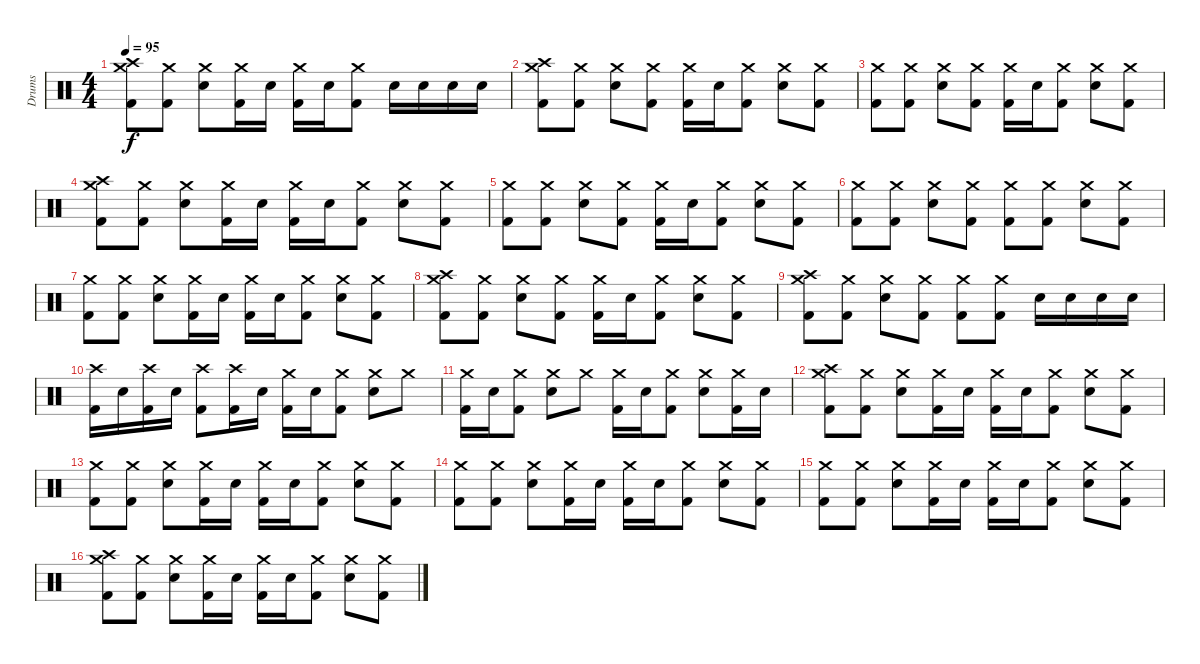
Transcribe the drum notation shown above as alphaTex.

\track ("Drums" "Drums") {instrument percussion}
\staff {score}
\articulation defaults
\ts (4 4)
\tempo 95
\clef neutral
\ks c
("Crash high (hit)" "Crash medium (hit)" "Kick (hit) 2").8{dy f} ("Crash medium (hit)" "Kick (hit) 2").8 ("Crash medium (hit)" "Snare (hit) 2").8 ("Crash medium (hit)" "Kick (hit) 2").16 "Snare (hit) 2".16 ("Crash medium (hit)" "Kick (hit) 2").16 "Snare (hit) 2".16 ("Crash medium (hit)" "Kick (hit) 2").8 "Snare (hit) 2".16 "Snare (hit) 2".16 "Snare (hit) 2".16 "Snare (hit) 2".16 |
("Crash high (hit)" "Crash medium (hit)" "Kick (hit) 2").8 ("Crash medium (hit)" "Kick (hit) 2").8 ("Crash medium (hit)" "Snare (hit) 2").8 ("Crash medium (hit)" "Kick (hit) 2").8 ("Crash medium (hit)" "Kick (hit) 2").16 "Snare (hit) 2".16 ("Crash medium (hit)" "Kick (hit) 2").8 ("Crash medium (hit)" "Snare (hit) 2").8 ("Crash medium (hit)" "Kick (hit) 2").8 |
("Crash medium (hit)" "Kick (hit) 2").8 ("Crash medium (hit)" "Kick (hit) 2").8 ("Crash medium (hit)" "Snare (hit) 2").8 ("Crash medium (hit)" "Kick (hit) 2").8 ("Crash medium (hit)" "Kick (hit) 2").16 "Snare (hit) 2".16 ("Crash medium (hit)" "Kick (hit) 2").8 ("Crash medium (hit)" "Snare (hit) 2").8 ("Crash medium (hit)" "Kick (hit) 2").8 |
("Crash high (hit)" "Crash medium (hit)" "Kick (hit) 2").8 ("Crash medium (hit)" "Kick (hit) 2").8 ("Crash medium (hit)" "Snare (hit) 2").8 ("Crash medium (hit)" "Kick (hit) 2").16 "Snare (hit) 2".16 ("Crash medium (hit)" "Kick (hit) 2").16 "Snare (hit) 2".16 ("Crash medium (hit)" "Kick (hit) 2").8 ("Crash medium (hit)" "Snare (hit) 2").8 ("Crash medium (hit)" "Kick (hit) 2").8 |
("Crash medium (hit)" "Kick (hit) 2").8 ("Crash medium (hit)" "Kick (hit) 2").8 ("Crash medium (hit)" "Snare (hit) 2").8 ("Crash medium (hit)" "Kick (hit) 2").8 ("Crash medium (hit)" "Kick (hit) 2").16 "Snare (hit) 2".16 ("Crash medium (hit)" "Kick (hit) 2").8 ("Crash medium (hit)" "Snare (hit) 2").8 ("Crash medium (hit)" "Kick (hit) 2").8 |
("Crash medium (hit)" "Kick (hit) 2").8 ("Crash medium (hit)" "Kick (hit) 2").8 ("Crash medium (hit)" "Snare (hit) 2").8 ("Crash medium (hit)" "Kick (hit) 2").8 ("Crash medium (hit)" "Kick (hit) 2").8 ("Crash medium (hit)" "Kick (hit) 2").8 ("Crash medium (hit)" "Snare (hit) 2").8 ("Crash medium (hit)" "Kick (hit) 2").8 |
("Crash medium (hit)" "Kick (hit) 2").8 ("Crash medium (hit)" "Kick (hit) 2").8 ("Crash medium (hit)" "Snare (hit) 2").8 ("Crash medium (hit)" "Kick (hit) 2").16 "Snare (hit) 2".16 ("Crash medium (hit)" "Kick (hit) 2").16 "Snare (hit) 2".16 ("Crash medium (hit)" "Kick (hit) 2").8 ("Crash medium (hit)" "Snare (hit) 2").8 ("Crash medium (hit)" "Kick (hit) 2").8 |
("Crash high (hit)" "Crash medium (hit)" "Kick (hit) 2").8 ("Crash medium (hit)" "Kick (hit) 2").8 ("Crash medium (hit)" "Snare (hit) 2").8 ("Crash medium (hit)" "Kick (hit) 2").8 ("Crash medium (hit)" "Kick (hit) 2").16 "Snare (hit) 2".16 ("Crash medium (hit)" "Kick (hit) 2").8 ("Crash medium (hit)" "Snare (hit) 2").8 ("Crash medium (hit)" "Kick (hit) 2").8 |
("Crash high (hit)" "Crash medium (hit)" "Kick (hit) 2").8 ("Crash medium (hit)" "Kick (hit) 2").8 ("Crash medium (hit)" "Snare (hit) 2").8 ("Crash medium (hit)" "Kick (hit) 2").8 ("Crash medium (hit)" "Kick (hit) 2").8 ("Crash medium (hit)" "Kick (hit) 2").8 "Snare (hit) 2".16 "Snare (hit) 2".16 "Snare (hit) 2".16 "Snare (hit) 2".16 |
("Crash high (hit)" "Kick (hit) 2").16 "Snare (hit) 2".16 ("Crash high (hit)" "Kick (hit) 2").16 "Snare (hit) 2".16 ("Crash high (hit)" "Kick (hit) 2").8 ("Crash high (hit)" "Kick (hit) 2").16 "Snare (hit) 2".16 ("Crash medium (hit)" "Kick (hit) 2").16 "Snare (hit) 2".16 ("Crash medium (hit)" "Kick (hit) 2").8 ("Crash medium (hit)" "Snare (hit) 2").8 "Crash medium (hit)".8 |
("Crash medium (hit)" "Kick (hit) 2").16 "Snare (hit) 2".16 ("Crash medium (hit)" "Kick (hit) 2").8 ("Crash medium (hit)" "Snare (hit) 2").8 "Crash medium (hit)".8 ("Crash medium (hit)" "Kick (hit) 2").16 "Snare (hit) 2".16 ("Crash medium (hit)" "Kick (hit) 2").8 ("Crash medium (hit)" "Snare (hit) 2").8 ("Crash medium (hit)" "Kick (hit) 2").16 "Snare (hit) 2".16 |
("Crash high (hit)" "Crash medium (hit)" "Kick (hit) 2").8 ("Crash medium (hit)" "Kick (hit) 2").8 ("Crash medium (hit)" "Snare (hit) 2").8 ("Crash medium (hit)" "Kick (hit) 2").16 "Snare (hit) 2".16 ("Crash medium (hit)" "Kick (hit) 2").16 "Snare (hit) 2".16 ("Crash medium (hit)" "Kick (hit) 2").8 ("Crash medium (hit)" "Snare (hit) 2").8 ("Crash medium (hit)" "Kick (hit) 2").8 |
("Crash medium (hit)" "Kick (hit) 2").8 ("Crash medium (hit)" "Kick (hit) 2").8 ("Crash medium (hit)" "Snare (hit) 2").8 ("Crash medium (hit)" "Kick (hit) 2").16 "Snare (hit) 2".16 ("Crash medium (hit)" "Kick (hit) 2").16 "Snare (hit) 2".16 ("Crash medium (hit)" "Kick (hit) 2").8 ("Crash medium (hit)" "Snare (hit) 2").8 ("Crash medium (hit)" "Kick (hit) 2").8 |
("Crash medium (hit)" "Kick (hit) 2").8 ("Crash medium (hit)" "Kick (hit) 2").8 ("Crash medium (hit)" "Snare (hit) 2").8 ("Crash medium (hit)" "Kick (hit) 2").16 "Snare (hit) 2".16 ("Crash medium (hit)" "Kick (hit) 2").16 "Snare (hit) 2".16 ("Crash medium (hit)" "Kick (hit) 2").8 ("Crash medium (hit)" "Snare (hit) 2").8 ("Crash medium (hit)" "Kick (hit) 2").8 |
("Crash medium (hit)" "Kick (hit) 2").8 ("Crash medium (hit)" "Kick (hit) 2").8 ("Crash medium (hit)" "Snare (hit) 2").8 ("Crash medium (hit)" "Kick (hit) 2").16 "Snare (hit) 2".16 ("Crash medium (hit)" "Kick (hit) 2").16 "Snare (hit) 2".16 ("Crash medium (hit)" "Kick (hit) 2").8 ("Crash medium (hit)" "Snare (hit) 2").8 ("Crash medium (hit)" "Kick (hit) 2").8 |
("Crash high (hit)" "Crash medium (hit)" "Kick (hit) 2").8 ("Crash medium (hit)" "Kick (hit) 2").8 ("Crash medium (hit)" "Snare (hit) 2").8 ("Crash medium (hit)" "Kick (hit) 2").16 "Snare (hit) 2".16 ("Crash medium (hit)" "Kick (hit) 2").16 "Snare (hit) 2".16 ("Crash medium (hit)" "Kick (hit) 2").8 ("Crash medium (hit)" "Snare (hit) 2").8 ("Crash medium (hit)" "Kick (hit) 2").8
